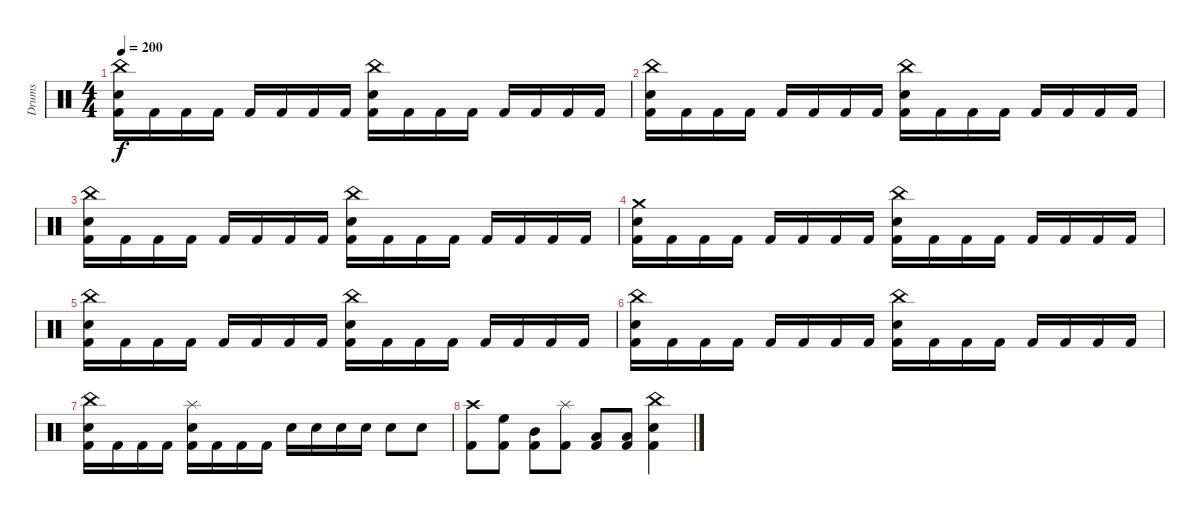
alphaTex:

\track ("Drums" "Drums") {instrument percussion}
\staff {score}
\articulation defaults
\ts (4 4)
\tempo 200
\clef neutral
\ks c
("China (hit)" "Electric Snare (hit)" "Kick (hit) 2").16{dy f} "Kick (hit) 2".16 "Kick (hit) 2".16 "Kick (hit) 2".16 "Kick (hit) 2".16 "Kick (hit) 2".16 "Kick (hit) 2".16 "Kick (hit) 2".16 ("China (hit)" "Electric Snare (hit)" "Kick (hit) 2").16 "Kick (hit) 2".16 "Kick (hit) 2".16 "Kick (hit) 2".16 "Kick (hit) 2".16 "Kick (hit) 2".16 "Kick (hit) 2".16 "Kick (hit) 2".16 |
("China (hit)" "Electric Snare (hit)" "Kick (hit) 2").16 "Kick (hit) 2".16 "Kick (hit) 2".16 "Kick (hit) 2".16 "Kick (hit) 2".16 "Kick (hit) 2".16 "Kick (hit) 2".16 "Kick (hit) 2".16 ("China (hit)" "Electric Snare (hit)" "Kick (hit) 2").16 "Kick (hit) 2".16 "Kick (hit) 2".16 "Kick (hit) 2".16 "Kick (hit) 2".16 "Kick (hit) 2".16 "Kick (hit) 2".16 "Kick (hit) 2".16 |
("China (hit)" "Electric Snare (hit)" "Kick (hit) 2").16 "Kick (hit) 2".16 "Kick (hit) 2".16 "Kick (hit) 2".16 "Kick (hit) 2".16 "Kick (hit) 2".16 "Kick (hit) 2".16 "Kick (hit) 2".16 ("China (hit)" "Electric Snare (hit)" "Kick (hit) 2").16 "Kick (hit) 2".16 "Kick (hit) 2".16 "Kick (hit) 2".16 "Kick (hit) 2".16 "Kick (hit) 2".16 "Kick (hit) 2".16 "Kick (hit) 2".16 |
("Crash medium (hit)" "Electric Snare (hit)" "Kick (hit) 2").16 "Kick (hit) 2".16 "Kick (hit) 2".16 "Kick (hit) 2".16 "Kick (hit) 2".16 "Kick (hit) 2".16 "Kick (hit) 2".16 "Kick (hit) 2".16 ("China (hit)" "Electric Snare (hit)" "Kick (hit) 2").16 "Kick (hit) 2".16 "Kick (hit) 2".16 "Kick (hit) 2".16 "Kick (hit) 2".16 "Kick (hit) 2".16 "Kick (hit) 2".16 "Kick (hit) 2".16 |
("China (hit)" "Electric Snare (hit)" "Kick (hit) 2").16 "Kick (hit) 2".16 "Kick (hit) 2".16 "Kick (hit) 2".16 "Kick (hit) 2".16 "Kick (hit) 2".16 "Kick (hit) 2".16 "Kick (hit) 2".16 ("China (hit)" "Electric Snare (hit)" "Kick (hit) 2").16 "Kick (hit) 2".16 "Kick (hit) 2".16 "Kick (hit) 2".16 "Kick (hit) 2".16 "Kick (hit) 2".16 "Kick (hit) 2".16 "Kick (hit) 2".16 |
("China (hit)" "Electric Snare (hit)" "Kick (hit) 2").16 "Kick (hit) 2".16 "Kick (hit) 2".16 "Kick (hit) 2".16 "Kick (hit) 2".16 "Kick (hit) 2".16 "Kick (hit) 2".16 "Kick (hit) 2".16 ("China (hit)" "Electric Snare (hit)" "Kick (hit) 2").16 "Kick (hit) 2".16 "Kick (hit) 2".16 "Kick (hit) 2".16 "Kick (hit) 2".16 "Kick (hit) 2".16 "Kick (hit) 2".16 "Kick (hit) 2".16 |
("China (hit)" "Electric Snare (hit)" "Kick (hit) 2").16 "Kick (hit) 2".16 "Kick (hit) 2".16 "Kick (hit) 2".16 ("Splash (hit)" "Electric Snare (hit)" "Kick (hit) 2").16 "Kick (hit) 2".16 "Kick (hit) 2".16 "Kick (hit) 2".16 "Electric Snare (hit)".16 "Electric Snare (hit)".16 "Electric Snare (hit)".16 "Electric Snare (hit)".16 "Electric Snare (hit)".8 "Electric Snare (hit)".8 |
("Crash high (hit)" "Kick (hit) 2").8 ("High Floor Tom (hit)" "Kick (hit) 2").8 ("Mid Tom (hit)" "Kick (hit) 2").8 ("Splash (hit)" "Kick (hit) 2").8 ("Low Tom (hit)" "Kick (hit) 2").8 ("Low Floor Tom (hit)" "Kick (hit) 2").8 ("China (hit)" "Electric Snare (hit)" "Kick (hit) 2").4
